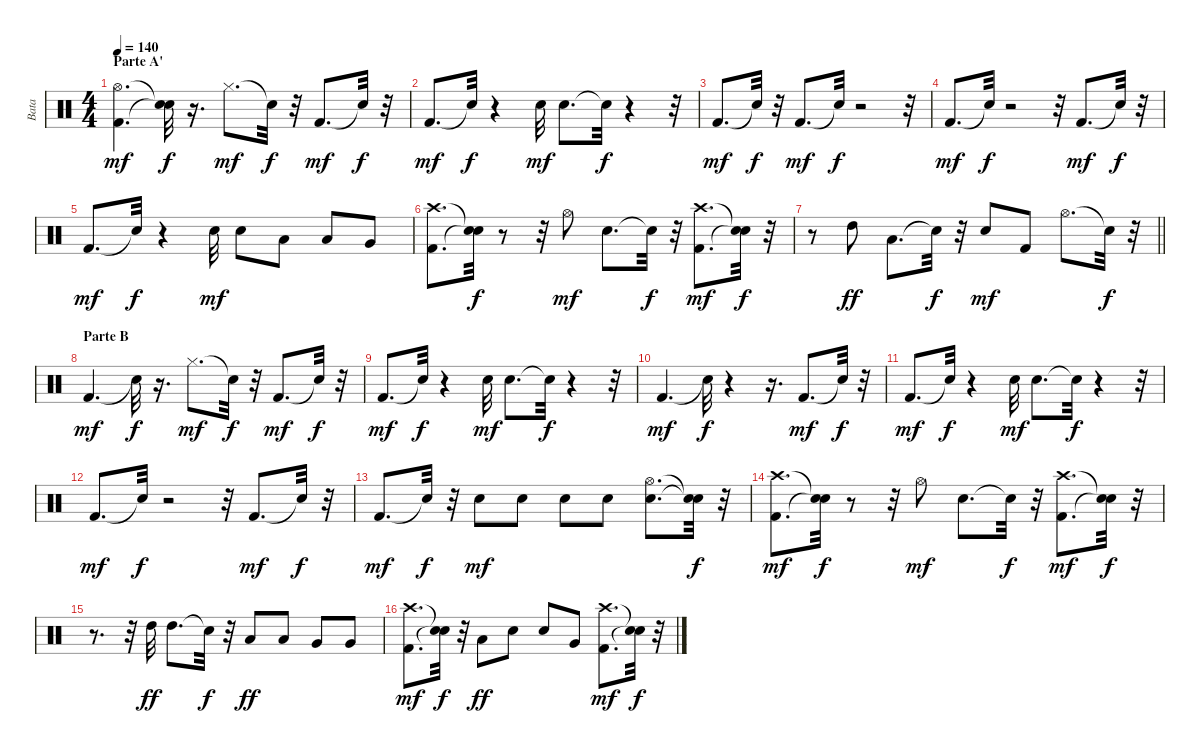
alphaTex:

\track ("Bata" "Bata") {instrument percussion}
\staff {score}
\articulation defaults
\ts (4 4)
\section ("" "Parte A'")
\tempo 140
\clef neutral
\ks c
("Hi-Hat (open)" "Kick (hit) 2").4{d dy mf} ("Snare (hit)"{t} "Snare (hit)"{t}).32{dy f} r.16{d} "Hi-Hat (closed)".8{d dy mf} "Snare (hit)"{t}.32{dy f} r.32 "Kick (hit) 2".8{d dy mf} "Snare (hit)"{t}.32{dy f} r.32 |
"Kick (hit) 2".8{d dy mf} "Snare (hit)"{t}.32{dy f} r.4 "Snare (hit) 2".32{dy mf} "Snare (hit) 2".8{d} "Snare (hit)"{t}.32{dy f} r.4 r.32 |
"Kick (hit) 2".8{d dy mf} "Snare (hit)"{t}.32{dy f} r.32 "Kick (hit) 2".8{d dy mf} "Snare (hit)"{t}.32{dy f} r.2 r.32 |
"Kick (hit) 2".8{d dy mf} "Snare (hit)"{t}.32{dy f} r.2 r.32 "Kick (hit) 2".8{d dy mf} "Snare (hit)"{t}.32{dy f} r.32 |
"Kick (hit) 2".8{d dy mf} "Snare (hit)"{t}.32{dy f} r.4 "Snare (hit) 2".32{dy mf} "Snare (hit) 2".8 "Low Tom (hit)".8 "Low Tom (hit)".8 "Very Low Tom (hit)".8 |
("Kick (hit) 2" "Crash high (hit)").8{d} ("Snare (hit)"{t} "Snare (hit)"{t}).32{dy f} r.8 r.32 "Hi-Hat (open)".8{dy mf} "Snare (hit) 2".8{d} "Snare (hit)"{t}.32{dy f} r.32 ("Crash high (hit)" "Kick (hit) 2").8{d dy mf} ("Snare (hit)"{t} "Snare (hit)"{t}).32{dy f} r.32 |
\barLineRight lightlight
r.8 "High Tom (hit)".8{dy ff} "Low Tom (hit)".8{d} "Snare (hit)"{t}.32{dy f} r.32 "Snare (hit) 2".8{dy mf} "Kick (hit) 2".8 "Hi-Hat (open)".8{d} "Snare (hit)"{t}.32{dy f} r.32 |
\section ("" "Parte B")
"Kick (hit) 2".4{d dy mf} "Snare (hit)"{t}.32{dy f} r.16{d} "Hi-Hat (closed)".8{d dy mf} "Snare (hit)"{t}.32{dy f} r.32 "Kick (hit) 2".8{d dy mf} "Snare (hit)"{t}.32{dy f} r.32 |
"Kick (hit) 2".8{d dy mf} "Snare (hit)"{t}.32{dy f} r.4 "Snare (hit) 2".32{dy mf} "Snare (hit) 2".8{d} "Snare (hit)"{t}.32{dy f} r.4 r.32 |
"Kick (hit) 2".4{d dy mf} "Snare (hit)"{t}.32{dy f} r.4 r.16{d} "Kick (hit) 2".8{d dy mf} "Snare (hit)"{t}.32{dy f} r.32 |
"Kick (hit) 2".8{d dy mf} "Snare (hit)"{t}.32{dy f} r.4 "Snare (hit) 2".32{dy mf} "Snare (hit) 2".8{d} "Snare (hit)"{t}.32{dy f} r.4 r.32 |
"Kick (hit) 2".8{d dy mf} "Snare (hit)"{t}.32{dy f} r.2 r.32 "Kick (hit) 2".8{d dy mf} "Snare (hit)"{t}.32{dy f} r.32 |
"Kick (hit) 2".8{d dy mf} "Snare (hit)"{t}.32{dy f} r.32 "Snare (hit) 2".8{dy mf} "Snare (hit) 2".8 "Snare (hit) 2".8 "Snare (hit) 2".8 ("Hi-Hat (open)" "Snare (hit) 2").8{d} ("Snare (hit)"{t} "Snare (hit)"{t}).32{dy f} r.32 |
("Kick (hit) 2" "Crash high (hit)").8{d dy mf} ("Snare (hit)"{t} "Snare (hit)"{t}).32{dy f} r.8 r.32 "Hi-Hat (open)".8{dy mf} "Snare (hit) 2".8{d} "Snare (hit)"{t}.32{dy f} r.32 ("Kick (hit) 2" "Crash high (hit)").8{d dy mf} ("Snare (hit)"{t} "Snare (hit)"{t}).32{dy f} r.32 |
r.8{d} r.32 "High Tom (hit)".32{dy ff} "High Tom (hit)".8{d} "Snare (hit)"{t}.32{dy f} r.32 "Low Tom (hit)".8{dy ff} "Low Tom (hit)".8 "Very Low Tom (hit)".8 "Very Low Tom (hit)".8 |
("Crash high (hit)" "Kick (hit) 2").8{d dy mf} ("Snare (hit)"{t} "Snare (hit)"{t}).32{dy f} r.32 "Low Tom (hit)".8{dy ff} "Snare (hit) 2".8 "Snare (hit) 2".8 "Very Low Tom (hit)".8 ("Kick (hit) 2" "Crash high (hit)").8{d dy mf} ("Snare (hit)"{t} "Snare (hit)"{t}).32{dy f} r.32
